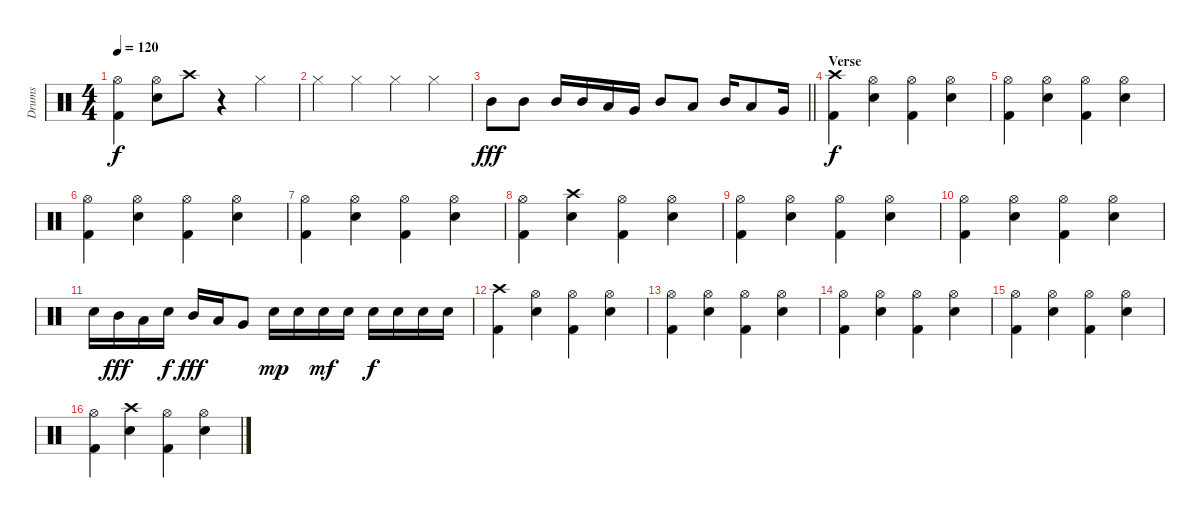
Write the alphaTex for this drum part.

\track ("Drums" "Drums") {instrument percussion}
\staff {score}
\articulation defaults
\ts (4 4)
\tempo 120
\clef neutral
\ks c
("Hi-Hat (open)" "Kick (hit) 2").4{dy f} ("Hi-Hat (open)" "Snare (hit) 2").8 "Crash high (hit)".8 r.4 "Hi-Hat (closed)".4 |
"Hi-Hat (closed)".4 "Hi-Hat (closed)".4 "Hi-Hat (closed)".4 "Hi-Hat (closed)".4 |
\barLineRight lightlight "Mid Tom (hit)".8{dy fff} "Mid Tom (hit)".8 "Mid Tom (hit)".16 "Mid Tom (hit)".16 "Low Tom (hit)".16 "Very Low Tom (hit)".16 "Mid Tom (hit)".8 "Low Tom (hit)".8 "Mid Tom (hit)".16 "Low Tom (hit)".8 "Very Low Tom (hit)".16
|
\section ("" "Verse")
("Crash high (hit)" "Kick (hit) 2").4{dy f} ("Hi-Hat (open)" "Snare (hit) 2").4 ("Hi-Hat (open)" "Kick (hit) 2").4 ("Hi-Hat (open)" "Snare (hit) 2").4 |
("Hi-Hat (open)" "Kick (hit) 2").4 ("Hi-Hat (open)" "Snare (hit) 2").4 ("Hi-Hat (open)" "Kick (hit) 2").4 ("Hi-Hat (open)" "Snare (hit) 2").4 |
("Hi-Hat (open)" "Kick (hit) 2").4 ("Hi-Hat (open)" "Snare (hit) 2").4 ("Hi-Hat (open)" "Kick (hit) 2").4 ("Hi-Hat (open)" "Snare (hit) 2").4 |
("Hi-Hat (open)" "Kick (hit) 2").4 ("Hi-Hat (open)" "Snare (hit) 2").4 ("Hi-Hat (open)" "Kick (hit) 2").4 ("Hi-Hat (open)" "Snare (hit) 2").4 |
("Hi-Hat (open)" "Kick (hit) 2").4 ("Crash high (hit)" "Snare (hit) 2").4 ("Hi-Hat (open)" "Kick (hit) 2").4 ("Hi-Hat (open)" "Snare (hit) 2").4 |
("Hi-Hat (open)" "Kick (hit) 2").4 ("Hi-Hat (open)" "Snare (hit) 2").4 ("Hi-Hat (open)" "Kick (hit) 2").4 ("Hi-Hat (open)" "Snare (hit) 2").4 |
("Hi-Hat (open)" "Kick (hit) 2").4 ("Hi-Hat (open)" "Snare (hit) 2").4 ("Hi-Hat (open)" "Kick (hit) 2").4 ("Hi-Hat (open)" "Snare (hit) 2").4 |
"Snare (hit) 2".16 "Mid Tom (hit)".16{dy fff} "Low Tom (hit)".16 "Snare (hit) 2".16{dy f} "Mid Tom (hit)".16{dy fff} "Low Tom (hit)".16 "Very Low Tom (hit)".8 "Snare (hit) 2".16{dy mp} "Snare (hit) 2".16 "Snare (hit) 2".16{dy mf} "Snare (hit) 2".16 "Snare (hit) 2".16{dy f} "Snare (hit) 2".16 "Snare (hit) 2".16 "Snare (hit) 2".16 |
("Crash high (hit)" "Kick (hit) 2").4 ("Hi-Hat (open)" "Snare (hit) 2").4 ("Hi-Hat (open)" "Kick (hit) 2").4 ("Hi-Hat (open)" "Snare (hit) 2").4 |
("Hi-Hat (open)" "Kick (hit) 2").4 ("Hi-Hat (open)" "Snare (hit) 2").4 ("Hi-Hat (open)" "Kick (hit) 2").4 ("Hi-Hat (open)" "Snare (hit) 2").4 |
("Hi-Hat (open)" "Kick (hit) 2").4 ("Hi-Hat (open)" "Snare (hit) 2").4 ("Hi-Hat (open)" "Kick (hit) 2").4 ("Hi-Hat (open)" "Snare (hit) 2").4 |
("Hi-Hat (open)" "Kick (hit) 2").4 ("Hi-Hat (open)" "Snare (hit) 2").4 ("Hi-Hat (open)" "Kick (hit) 2").4 ("Hi-Hat (open)" "Snare (hit) 2").4 |
("Hi-Hat (open)" "Kick (hit) 2").4 ("Crash high (hit)" "Snare (hit) 2").4 ("Hi-Hat (open)" "Kick (hit) 2").4 ("Hi-Hat (open)" "Snare (hit) 2").4
